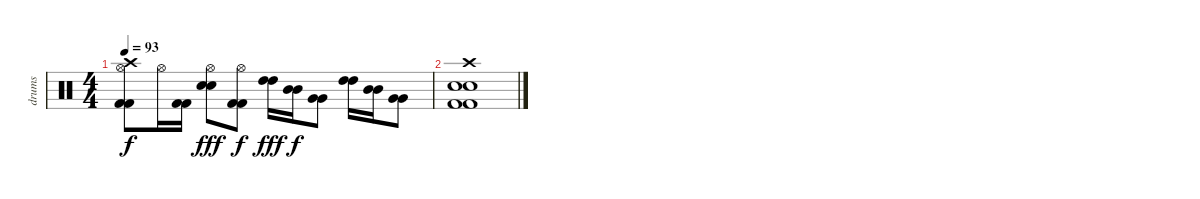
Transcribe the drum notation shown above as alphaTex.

\track ("drums" "drums") {instrument percussion}
\staff {score}
\articulation defaults
\ts (4 4)
\tempo 93
\clef neutral
\ks c
("Crash high (hit)" "Hi-Hat (open)" "Kick (hit) 2" "Kick (hit) 2").8{dy f} "Hi-Hat (open)".16 ("Kick (hit) 2" "Kick (hit) 2").16 ("Electric Snare (hit)" "Electric Snare (hit)" "Hi-Hat (open)").8{dy fff} ("Hi-Hat (open)" "Kick (hit) 2" "Kick (hit) 2").8{dy f} ("High Tom (hit)" "High Tom (hit)").16{dy fff} ("Mid Tom (hit)" "Mid Tom (hit)").16{dy f} ("Very Low Tom (hit)" "Very Low Tom (hit)").8 ("High Tom (hit)" "High Tom (hit)").16 ("Mid Tom (hit)" "Mid Tom (hit)").16 ("Very Low Tom (hit)" "Very Low Tom (hit)").8 |
("Electric Snare (hit)" "Electric Snare (hit)" "Crash high (hit)" "Kick (hit) 2" "Kick (hit) 2").1
